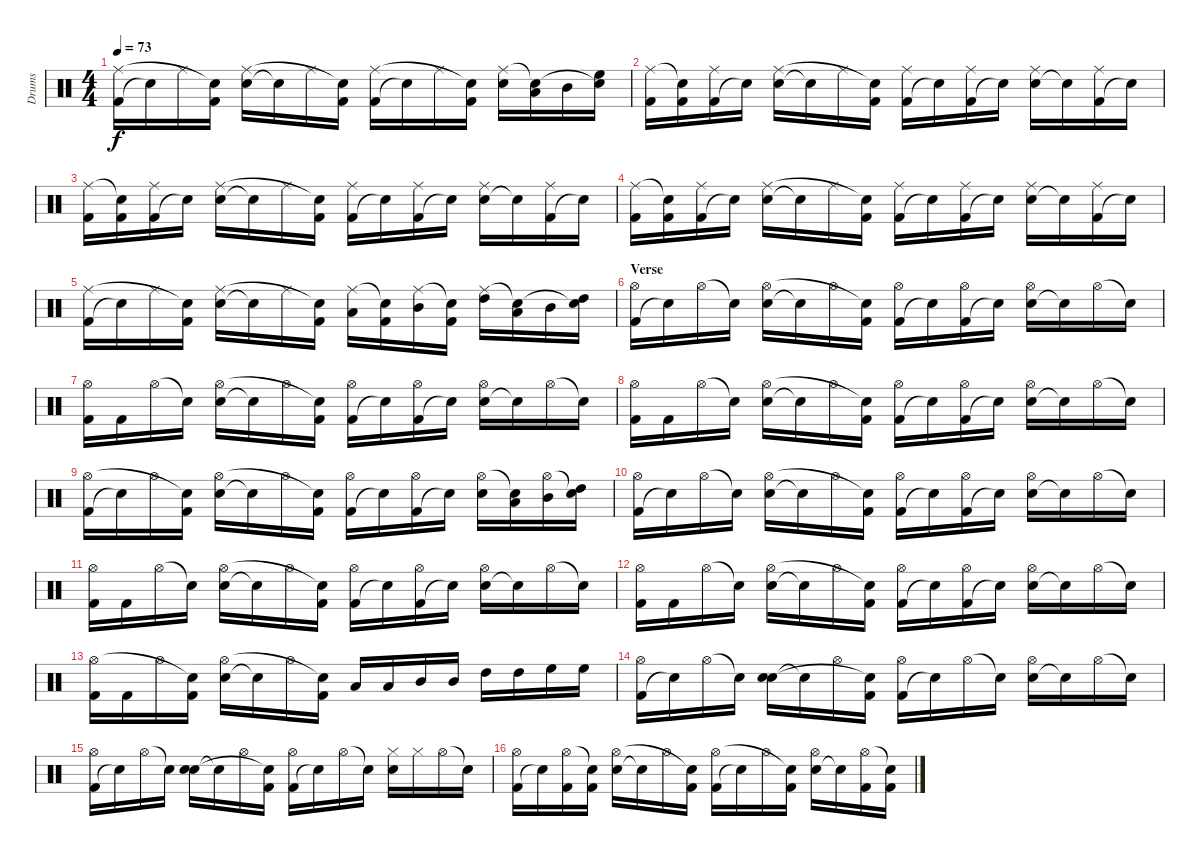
\track ("Drums" "Drums") {instrument percussion}
\staff {score}
\articulation defaults
\ts (4 4)
\tempo 73
\clef neutral
\ks c
("Kick (hit) 2" "Ride (middle)").16{dy f} "Snare (hit)"{t}.16 "Ride (middle)".16 ("Kick (hit) 2" "Snare (hit)"{t}).16 ("Snare (hit) 2" "Ride (middle)").16 "Snare (hit)"{t}.16 "Ride (middle)".16 ("Kick (hit) 2" "Snare (hit)"{t}).16 ("Kick (hit) 2" "Ride (middle)").16 "Snare (hit)"{t}.16 "Ride (middle)".16 ("Kick (hit) 2" "Snare (hit)"{t}).16 ("Snare (hit) 2" "Ride (middle)").16 ("Low Tom (hit)" "Snare (hit)"{t}).16 "Mid Tom (hit)".16 ("High Floor Tom (hit)" "Snare (hit)"{t}).16 |
("Kick (hit) 2" "Ride (middle)").16 ("Kick (hit) 2" "Snare (hit)"{t}).16 ("Kick (hit) 2" "Ride (middle)").16 "Snare (hit)"{t}.16 ("Snare (hit) 2" "Ride (middle)").16 "Snare (hit)"{t}.16 "Ride (middle)".16 ("Kick (hit) 2" "Snare (hit)"{t}).16 ("Kick (hit) 2" "Ride (middle)").16 "Snare (hit)"{t}.16 ("Kick (hit) 2" "Ride (middle)").16 "Snare (hit)"{t}.16 ("Snare (hit) 2" "Ride (middle)").16 "Snare (hit)"{t}.16 ("Kick (hit) 2" "Ride (middle)").16 "Snare (hit)"{t}.16 |
("Kick (hit) 2" "Ride (middle)").16 ("Kick (hit) 2" "Snare (hit)"{t}).16 ("Kick (hit) 2" "Ride (middle)").16 "Snare (hit)"{t}.16 ("Snare (hit) 2" "Ride (middle)").16 "Snare (hit)"{t}.16 "Ride (middle)".16 ("Kick (hit) 2" "Snare (hit)"{t}).16 ("Kick (hit) 2" "Ride (middle)").16 "Snare (hit)"{t}.16 ("Kick (hit) 2" "Ride (middle)").16 "Snare (hit)"{t}.16 ("Snare (hit) 2" "Ride (middle)").16 "Snare (hit)"{t}.16 ("Kick (hit) 2" "Ride (middle)").16 "Snare (hit)"{t}.16 |
("Kick (hit) 2" "Ride (middle)").16 ("Kick (hit) 2" "Snare (hit)"{t}).16 ("Kick (hit) 2" "Ride (middle)").16 "Snare (hit)"{t}.16 ("Snare (hit) 2" "Ride (middle)").16 "Snare (hit)"{t}.16 "Ride (middle)".16 ("Kick (hit) 2" "Snare (hit)"{t}).16 ("Kick (hit) 2" "Ride (middle)").16 "Snare (hit)"{t}.16 ("Kick (hit) 2" "Ride (middle)").16 "Snare (hit)"{t}.16 ("Snare (hit) 2" "Ride (middle)").16 "Snare (hit)"{t}.16 ("Kick (hit) 2" "Ride (middle)").16 "Snare (hit)"{t}.16 |
("Kick (hit) 2" "Ride (middle)").16 "Snare (hit)"{t}.16 "Ride (middle)".16 ("Kick (hit) 2" "Snare (hit)"{t}).16 ("Snare (hit) 2" "Ride (middle)").16 "Snare (hit)"{t}.16 "Ride (middle)".16 ("Kick (hit) 2" "Snare (hit)"{t}).16 ("Low Tom (hit)" "Ride (middle)").16 ("Kick (hit) 2" "Snare (hit)"{t}).16 ("Mid Tom (hit)" "Ride (middle)").16 ("Kick (hit) 2" "Snare (hit)"{t}).16 ("High Tom (hit)" "Ride (middle)").16 ("Low Tom (hit)" "Snare (hit)"{t}).16 "Mid Tom (hit)".16 ("High Tom (hit)" "Snare (hit)"{t}).16 |
\section ("" "Verse")
("Kick (hit) 2" "Hi-Hat (open)").16 "Snare (hit)"{t}.16 "Hi-Hat (open)".16 "Snare (hit)"{t}.16 ("Snare (hit) 2" "Hi-Hat (open)").16 "Snare (hit)"{t}.16 "Hi-Hat (open)".16 ("Kick (hit) 2" "Snare (hit)"{t}).16 ("Kick (hit) 2" "Hi-Hat (open)").16 "Snare (hit)"{t}.16 ("Kick (hit) 2" "Hi-Hat (open)").16 "Snare (hit)"{t}.16 ("Snare (hit) 2" "Hi-Hat (open)").16 "Snare (hit)"{t}.16 "Hi-Hat (open)".16 "Snare (hit)"{t}.16 |
("Kick (hit) 2" "Hi-Hat (open)").16 "Kick (hit) 2".16 "Hi-Hat (open)".16 "Snare (hit)"{t}.16 ("Snare (hit) 2" "Hi-Hat (open)").16 "Snare (hit)"{t}.16 "Hi-Hat (open)".16 ("Kick (hit) 2" "Snare (hit)"{t}).16 ("Kick (hit) 2" "Hi-Hat (open)").16 "Snare (hit)"{t}.16 ("Kick (hit) 2" "Hi-Hat (open)").16 "Snare (hit)"{t}.16 ("Snare (hit) 2" "Hi-Hat (open)").16 "Snare (hit)"{t}.16 "Hi-Hat (open)".16 "Snare (hit)"{t}.16 |
("Kick (hit) 2" "Hi-Hat (open)").16 "Kick (hit) 2".16 "Hi-Hat (open)".16 "Snare (hit)"{t}.16 ("Snare (hit) 2" "Hi-Hat (open)").16 "Snare (hit)"{t}.16 "Hi-Hat (open)".16 ("Kick (hit) 2" "Snare (hit)"{t}).16 ("Kick (hit) 2" "Hi-Hat (open)").16 "Snare (hit)"{t}.16 ("Kick (hit) 2" "Hi-Hat (open)").16 "Snare (hit)"{t}.16 ("Snare (hit) 2" "Hi-Hat (open)").16 "Snare (hit)"{t}.16 "Hi-Hat (open)".16 "Snare (hit)"{t}.16 |
("Kick (hit) 2" "Hi-Hat (open)").16 "Snare (hit)"{t}.16 "Hi-Hat (open)".16 ("Kick (hit) 2" "Snare (hit)"{t}).16 ("Snare (hit) 2" "Hi-Hat (open)").16 "Snare (hit)"{t}.16 "Hi-Hat (open)".16 ("Kick (hit) 2" "Snare (hit)"{t}).16 ("Kick (hit) 2" "Hi-Hat (open)").16 "Snare (hit)"{t}.16 ("Kick (hit) 2" "Hi-Hat (open)").16 "Snare (hit)"{t}.16 ("Snare (hit) 2" "Hi-Hat (open)").16 ("Low Tom (hit)" "Snare (hit)"{t}).16 ("Mid Tom (hit)" "Hi-Hat (open)").16 ("High Tom (hit)" "Snare (hit)"{t}).16 |
("Kick (hit) 2" "Hi-Hat (open)").16 "Snare (hit)"{t}.16 "Hi-Hat (open)".16 "Snare (hit)"{t}.16 ("Snare (hit) 2" "Hi-Hat (open)").16 "Snare (hit)"{t}.16 "Hi-Hat (open)".16 ("Kick (hit) 2" "Snare (hit)"{t}).16 ("Kick (hit) 2" "Hi-Hat (open)").16 "Snare (hit)"{t}.16 ("Kick (hit) 2" "Hi-Hat (open)").16 "Snare (hit)"{t}.16 ("Snare (hit) 2" "Hi-Hat (open)").16 "Snare (hit)"{t}.16 "Hi-Hat (open)".16 "Snare (hit)"{t}.16 |
("Kick (hit) 2" "Hi-Hat (open)").16 "Kick (hit) 2".16 "Hi-Hat (open)".16 "Snare (hit)"{t}.16 ("Snare (hit) 2" "Hi-Hat (open)").16 "Snare (hit)"{t}.16 "Hi-Hat (open)".16 ("Kick (hit) 2" "Snare (hit)"{t}).16 ("Kick (hit) 2" "Hi-Hat (open)").16 "Snare (hit)"{t}.16 ("Kick (hit) 2" "Hi-Hat (open)").16 "Snare (hit)"{t}.16 ("Snare (hit) 2" "Hi-Hat (open)").16 "Snare (hit)"{t}.16 "Hi-Hat (open)".16 "Snare (hit)"{t}.16 |
("Kick (hit) 2" "Hi-Hat (open)").16 "Kick (hit) 2".16 "Hi-Hat (open)".16 "Snare (hit)"{t}.16 ("Snare (hit) 2" "Hi-Hat (open)").16 "Snare (hit)"{t}.16 "Hi-Hat (open)".16 ("Kick (hit) 2" "Snare (hit)"{t}).16 ("Kick (hit) 2" "Hi-Hat (open)").16 "Snare (hit)"{t}.16 ("Kick (hit) 2" "Hi-Hat (open)").16 "Snare (hit)"{t}.16 ("Snare (hit) 2" "Hi-Hat (open)").16 "Snare (hit)"{t}.16 "Hi-Hat (open)".16 "Snare (hit)"{t}.16 |
("Kick (hit) 2" "Hi-Hat (open)").16 "Kick (hit) 2".16 "Hi-Hat (open)".16 ("Kick (hit) 2" "Snare (hit)"{t}).16 ("Snare (hit) 2" "Hi-Hat (open)").16 "Snare (hit)"{t}.16 "Hi-Hat (open)".16 ("Kick (hit) 2" "Snare (hit)"{t}).16 "Low Tom (hit)".16 "Low Tom (hit)".16 "Mid Tom (hit)".16 "Mid Tom (hit)".16 "High Tom (hit)".16 "High Tom (hit)".16 "High Floor Tom (hit)".16 "High Floor Tom (hit)".16 |
("Kick (hit) 2" "Hi-Hat (open)").16 "Snare (hit)"{t}.16 "Hi-Hat (open)".16 "Snare (hit)"{t}.16 ("Snare (hit) 2" "Snare (hit) 2").16 "Snare (hit)"{t}.16 "Hi-Hat (open)".16 ("Kick (hit) 2" "Snare (hit)"{t}).16 ("Kick (hit) 2" "Hi-Hat (open)").16 "Snare (hit)"{t}.16 "Hi-Hat (open)".16 "Snare (hit)"{t}.16 ("Snare (hit) 2" "Hi-Hat (open)").16 "Snare (hit)"{t}.16 "Hi-Hat (open)".16 "Snare (hit)"{t}.16 |
("Kick (hit) 2" "Hi-Hat (open)").16 "Snare (hit)"{t}.16 "Hi-Hat (open)".16 "Snare (hit)"{t}.16 ("Snare (hit) 2" "Snare (hit) 2").16 "Snare (hit)"{t}.16 "Hi-Hat (open)".16 ("Kick (hit) 2" "Snare (hit)"{t}).16 ("Kick (hit) 2" "Hi-Hat (open)").16 "Snare (hit)"{t}.16 "Hi-Hat (open)".16 "Snare (hit)"{t}.16 ("Snare (hit) 2" "Hi-Hat (closed)").16 "Hi-Hat (closed)".16 "Hi-Hat (open)".16 "Snare (hit)"{t}.16 |
("Kick (hit) 2" "Hi-Hat (open)").16 "Snare (hit)"{t}.16 ("Kick (hit) 2" "Hi-Hat (open)").16 ("Kick (hit) 2" "Snare (hit)"{t}).16 ("Snare (hit) 2" "Hi-Hat (open)").16 "Snare (hit)"{t}.16 "Hi-Hat (open)".16 ("Kick (hit) 2" "Snare (hit)"{t}).16 ("Kick (hit) 2" "Hi-Hat (open)").16 "Snare (hit)"{t}.16 "Hi-Hat (open)".16 ("Kick (hit) 2" "Snare (hit)"{t}).16 ("Snare (hit) 2" "Hi-Hat (open)").16 "Snare (hit)"{t}.16 ("Kick (hit) 2" "Hi-Hat (open)").16 ("Kick (hit) 2" "Snare (hit)"{t}).16
